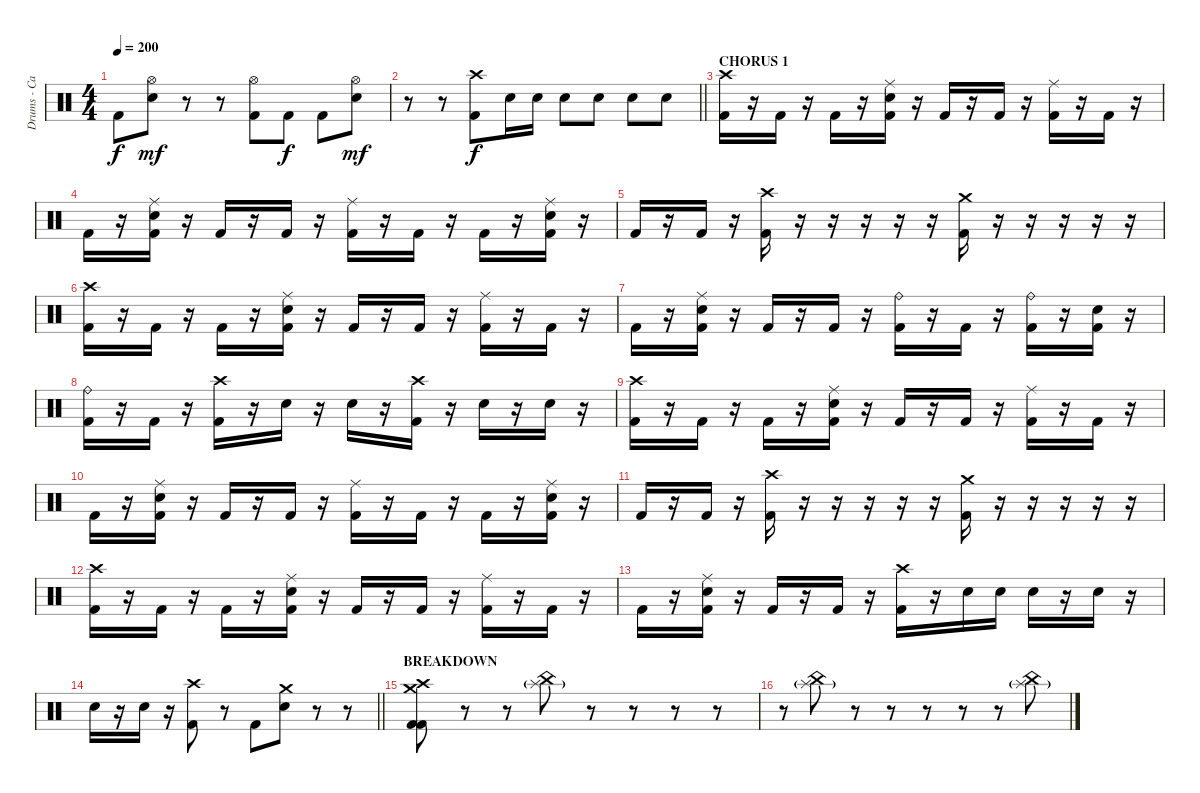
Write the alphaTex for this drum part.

\track ("Drums - Carlos Cruz" "Drums - Ca") {instrument percussion}
\staff {score}
\articulation defaults
\ts (4 4)
\tempo 200
\clef neutral
\ks c "Kick (hit) 2".8{dy f}
("Hi-Hat (open)" "Snare (hit) 2").8{dy mf} r.8 r.8 ("Hi-Hat (open)" "Kick (hit) 2").8 "Kick (hit) 2".8{dy f} "Kick (hit) 2".8 ("Hi-Hat (open)" "Snare (hit) 2").8{dy mf} |
\barLineRight lightlight
r.8 r.8 ("Crash high (hit)" "Kick (hit) 2").8{dy f} "Snare (hit) 2".16 "Snare (hit) 2".16 "Snare (hit) 2".8 "Snare (hit) 2".8 "Snare (hit) 2".8 "Snare (hit) 2".8 |
\section ("" "CHORUS 1")
("Crash high (hit)" "Kick (hit) 2").16 r.16 "Kick (hit) 2".16 r.16 "Kick (hit) 2".16 r.16 ("Ride (middle)" "Snare (hit) 2" "Kick (hit) 2").16 r.16 "Kick (hit) 2".16 r.16 "Kick (hit) 2".16 r.16 ("Ride (middle)" "Kick (hit) 2").16 r.16 "Kick (hit) 2".16 r.16 |
"Kick (hit) 2".16 r.16 ("Ride (middle)" "Snare (hit) 2" "Kick (hit) 2").16 r.16 "Kick (hit) 2".16 r.16 "Kick (hit) 2".16 r.16 ("Ride (middle)" "Kick (hit) 2").16 r.16 "Kick (hit) 2".16 r.16 "Kick (hit) 2".16 r.16 ("Ride (middle)" "Snare (hit) 2" "Kick (hit) 2").16 r.16 |
"Kick (hit) 2".16 r.16 "Kick (hit) 2".16 r.16 ("Crash high (hit)" "Kick (hit) 2").16 r.16 r.16 r.16 r.16 r.16 ("Crash medium (hit)" "Kick (hit) 2").16 r.16 r.16 r.16 r.16 r.16 |
("Crash high (hit)" "Kick (hit) 2").16 r.16 "Kick (hit) 2".16 r.16 "Kick (hit) 2".16 r.16 ("Ride (middle)" "Snare (hit) 2" "Kick (hit) 2").16 r.16 "Kick (hit) 2".16 r.16 "Kick (hit) 2".16 r.16 ("Ride (middle)" "Kick (hit) 2").16 r.16 "Kick (hit) 2".16 r.16 |
"Kick (hit) 2".16 r.16 ("Ride (middle)" "Snare (hit) 2" "Kick (hit) 2").16 r.16 "Kick (hit) 2".16 r.16 "Kick (hit) 2".16 r.16 ("Ride (bell)" "Kick (hit) 2").16 r.16 "Kick (hit) 2".16 r.16 ("Ride (bell)" "Kick (hit) 2").16 r.16 ("Snare (hit) 2" "Kick (hit) 2").16 r.16 |
("Ride (bell)" "Kick (hit) 2").16 r.16 "Kick (hit) 2".16 r.16 ("Crash high (hit)" "Kick (hit) 2").16 r.16 "Snare (hit) 2".16 r.16 "Snare (hit) 2".16 r.16 ("Crash high (hit)" "Kick (hit) 2").16 r.16 "Snare (hit) 2".16 r.16 "Snare (hit) 2".16 r.16 |
("Crash high (hit)" "Kick (hit) 2").16 r.16 "Kick (hit) 2".16 r.16 "Kick (hit) 2".16 r.16 ("Ride (middle)" "Snare (hit) 2" "Kick (hit) 2").16 r.16 "Kick (hit) 2".16 r.16 "Kick (hit) 2".16 r.16 ("Ride (middle)" "Kick (hit) 2").16 r.16 "Kick (hit) 2".16 r.16 |
"Kick (hit) 2".16 r.16 ("Ride (middle)" "Snare (hit) 2" "Kick (hit) 2").16 r.16 "Kick (hit) 2".16 r.16 "Kick (hit) 2".16 r.16 ("Ride (middle)" "Kick (hit) 2").16 r.16 "Kick (hit) 2".16 r.16 "Kick (hit) 2".16 r.16 ("Ride (middle)" "Snare (hit) 2" "Kick (hit) 2").16 r.16 |
"Kick (hit) 2".16 r.16 "Kick (hit) 2".16 r.16 ("Crash high (hit)" "Kick (hit) 2").16 r.16 r.16 r.16 r.16 r.16 ("Crash medium (hit)" "Kick (hit) 2").16 r.16 r.16 r.16 r.16 r.16 |
("Crash high (hit)" "Kick (hit) 2").16 r.16 "Kick (hit) 2".16 r.16 "Kick (hit) 2".16 r.16 ("Ride (middle)" "Snare (hit) 2" "Kick (hit) 2").16 r.16 "Kick (hit) 2".16 r.16 "Kick (hit) 2".16 r.16 ("Ride (middle)" "Kick (hit) 2").16 r.16 "Kick (hit) 2".16 r.16 |
"Kick (hit) 2".16 r.16 ("Ride (middle)" "Snare (hit) 2" "Kick (hit) 2").16 r.16 "Kick (hit) 2".16 r.16 "Kick (hit) 2".16 r.16 ("Crash high (hit)" "Kick (hit) 2").16 r.16 "Snare (hit) 2".16 "Snare (hit) 2".16 "Snare (hit) 2".16 r.16 "Snare (hit) 2".16 r.16 |
\barLineRight lightlight "Snare (hit) 2".16
r.16 "Snare (hit) 2".16 r.16 ("Crash high (hit)" "Kick (hit) 2").8 r.8 "Kick (hit) 2".8 ("Crash medium (hit)" "Snare (hit) 2").8 r.8 r.8 |
\section ("" "BREAKDOWN")
("Crash medium (hit)" "Crash high (hit)" "Kick (hit) 2" "Kick (hit) 2").8 r.8 r.8 ("China (hit)" "Splash (hit)"{g}).8 r.8 r.8 r.8 r.8 |
r.8 ("China (hit)" "Splash (hit)"{g}).8 r.8 r.8 r.8 r.8 r.8 ("China (hit)" "Splash (hit)"{g}).8
